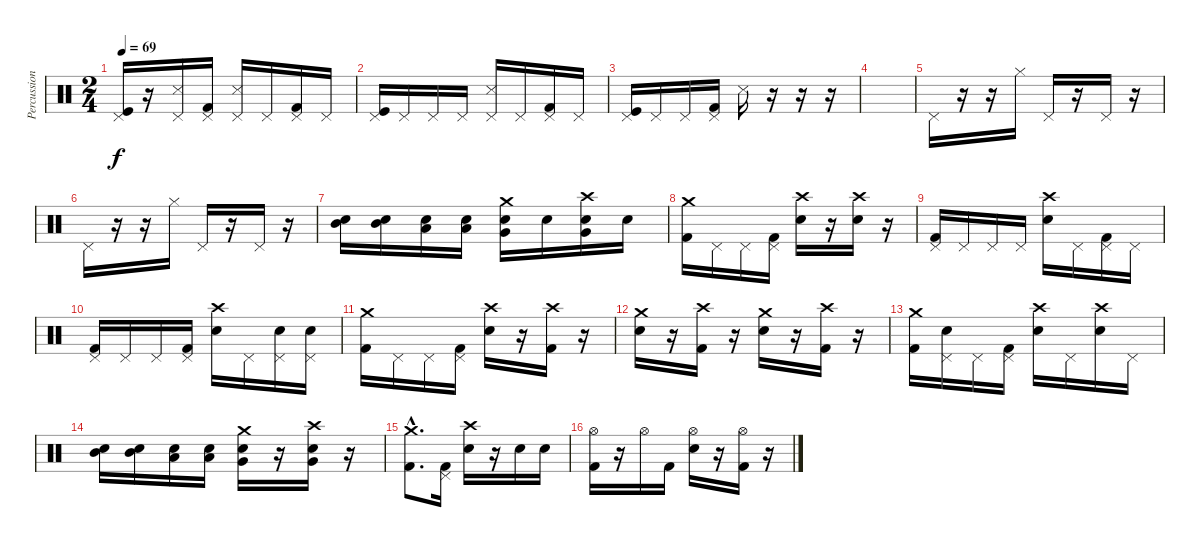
\track ("Percussions" "Percussion") {instrument percussion}
\staff {score}
\articulation defaults
\ts (2 4)
\tempo 69
\clef neutral
\ks c
("Pedal Hi-Hat (hit)" "Kick (hit)").16{dy f} r.16 ("Pedal Hi-Hat (hit)" "Snare (side stick) 3").16 ("Pedal Hi-Hat (hit)" "Kick (hit) 2").16 ("Pedal Hi-Hat (hit)" "Snare (side stick) 3").16 "Pedal Hi-Hat (hit)".16 ("Pedal Hi-Hat (hit)" "Kick (hit) 2").16 "Pedal Hi-Hat (hit)".16 |
("Pedal Hi-Hat (hit)" "Kick (hit)").16 "Pedal Hi-Hat (hit)".16 "Pedal Hi-Hat (hit)".16 "Pedal Hi-Hat (hit)".16 ("Pedal Hi-Hat (hit)" "Snare (side stick) 3").16 "Pedal Hi-Hat (hit)".16 ("Pedal Hi-Hat (hit)" "Kick (hit) 2").16 "Pedal Hi-Hat (hit)".16 |
("Pedal Hi-Hat (hit)" "Kick (hit)").16 "Pedal Hi-Hat (hit)".16 "Pedal Hi-Hat (hit)".16 ("Pedal Hi-Hat (hit)" "Kick (hit) 2").16 "Snare (side stick) 3".16 r.16 r.16 r.16 |
|
"Pedal Hi-Hat (hit)".16 r.16 r.16 "Hi-Hat (closed)".16 "Pedal Hi-Hat (hit)".16 r.16 "Pedal Hi-Hat (hit)".16 r.16 |
"Pedal Hi-Hat (hit)".16 r.16 r.16 "Hi-Hat (closed)".16 "Pedal Hi-Hat (hit)".16 r.16 "Pedal Hi-Hat (hit)".16 r.16 |
("Mid Tom (hit)" "Electric Snare (hit)").16{volume 7} ("Mid Tom (hit)" "Electric Snare (hit)").16 ("Low Tom (hit)" "Electric Snare (hit)").16 ("Low Tom (hit)" "Electric Snare (hit)").16 ("Crash medium (hit)" "Very Low Tom (hit)" "Electric Snare (hit)").16 "Electric Snare (hit)".16 ("Crash high (hit)" "Very Low Tom (hit)" "Electric Snare (hit)").16 "Electric Snare (hit)".16 |
("Crash medium (hit)" "Kick (hit) 2").16 "Pedal Hi-Hat (hit)".16 "Pedal Hi-Hat (hit)".16 ("Pedal Hi-Hat (hit)" "Kick (hit) 2").16 ("Crash high (hit)" "Electric Snare (hit)").16 r.16 ("Crash high (hit)" "Electric Snare (hit)").16 r.16 |
("Pedal Hi-Hat (hit)" "Kick (hit) 2").16 "Pedal Hi-Hat (hit)".16 "Pedal Hi-Hat (hit)".16 "Pedal Hi-Hat (hit)".16 ("Crash high (hit)" "Electric Snare (hit)").16 "Pedal Hi-Hat (hit)".16 ("Pedal Hi-Hat (hit)" "Kick (hit) 2").16 "Pedal Hi-Hat (hit)".16 |
("Pedal Hi-Hat (hit)" "Kick (hit) 2").16 "Pedal Hi-Hat (hit)".16 "Pedal Hi-Hat (hit)".16 ("Pedal Hi-Hat (hit)" "Kick (hit) 2").16 ("Crash high (hit)" "Electric Snare (hit)").16 "Pedal Hi-Hat (hit)".16 ("Pedal Hi-Hat (hit)" "Electric Snare (hit)").16 ("Pedal Hi-Hat (hit)" "Electric Snare (hit)").16 |
("Crash medium (hit)" "Kick (hit) 2").16 "Pedal Hi-Hat (hit)".16 "Pedal Hi-Hat (hit)".16 ("Pedal Hi-Hat (hit)" "Kick (hit) 2").16 ("Crash high (hit)" "Electric Snare (hit)").16 r.16 ("Crash high (hit)" "Kick (hit) 2").16 r.16 |
("Crash medium (hit)" "Electric Snare (hit)").16 r.16 ("Crash high (hit)" "Kick (hit) 2").16 r.16 ("Crash medium (hit)" "Electric Snare (hit)").16 r.16 ("Crash high (hit)" "Kick (hit) 2").16 r.16 |
("Crash medium (hit)" "Kick (hit) 2").16 ("Pedal Hi-Hat (hit)" "Electric Snare (hit)").16 "Pedal Hi-Hat (hit)".16 ("Pedal Hi-Hat (hit)" "Kick (hit) 2").16 ("Crash high (hit)" "Electric Snare (hit)").16 "Pedal Hi-Hat (hit)".16 ("Crash high (hit)" "Electric Snare (hit)").16 "Pedal Hi-Hat (hit)".16 |
("Mid Tom (hit)" "Electric Snare (hit)").16 ("Mid Tom (hit)" "Electric Snare (hit)").16 ("Low Tom (hit)" "Electric Snare (hit)").16 ("Low Tom (hit)" "Electric Snare (hit)").16 ("Crash medium (hit)" "Very Low Tom (hit)" "Electric Snare (hit)").16 r.16 ("Crash high (hit)" "Very Low Tom (hit)" "Electric Snare (hit)").16 r.16 |
("Crash medium (hit)"{hac} "Kick (hit) 2"{hac}).8{d} ("Pedal Hi-Hat (hit)" "Kick (hit) 2").16 ("Crash high (hit)" "Electric Snare (hit)").16 r.16 "Electric Snare (hit)".16 "Electric Snare (hit)".16 |
("Hi-Hat (open)" "Kick (hit) 2").16 r.16 "Hi-Hat (open)".16 "Kick (hit) 2".16 ("Hi-Hat (open)" "Electric Snare (hit)").16 r.16 ("Hi-Hat (open)" "Kick (hit) 2").16 r.16
